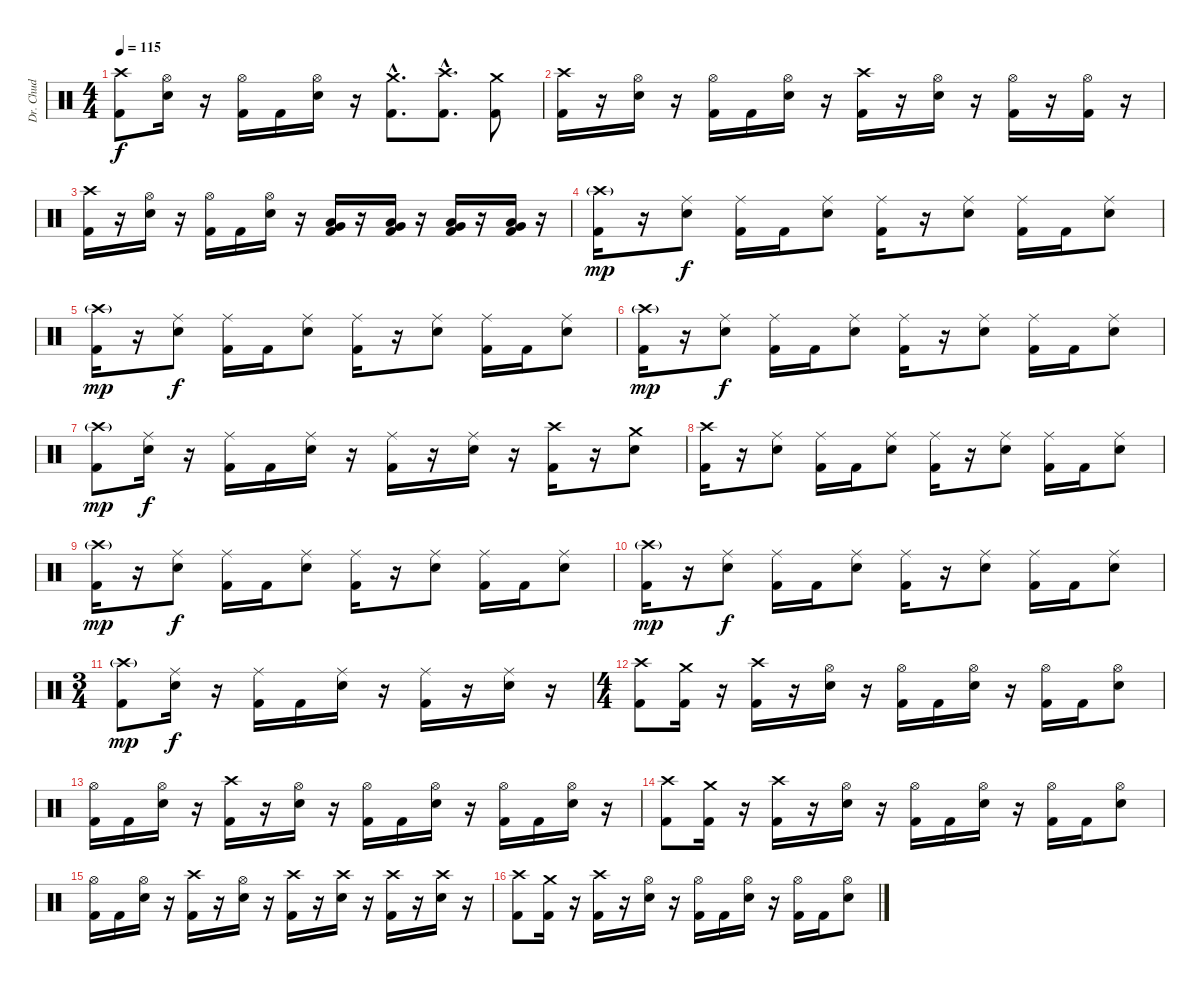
\track ("Dr. Chud" "Dr. Chud") {instrument percussion}
\staff {score}
\articulation defaults
\ts (4 4)
\tempo 115
\clef neutral
\ks c
("Crash high (hit)" "Kick (hit) 2").8{dy f} ("Hi-Hat (open)" "Snare (hit) 2").16 r.16 ("Hi-Hat (open)" "Kick (hit) 2").16 "Kick (hit) 2".16 ("Hi-Hat (open)" "Snare (hit) 2").16 r.16 ("Crash medium (hit)"{hac} "Kick (hit) 2"{hac}).8{d} ("Crash high (hit)"{hac} "Kick (hit) 2"{hac}).8{d} ("Crash medium (hit)" "Kick (hit) 2").8 |
("Crash high (hit)" "Kick (hit) 2").16 r.16 ("Hi-Hat (open)" "Snare (hit) 2").16 r.16 ("Hi-Hat (open)" "Kick (hit) 2").16 "Kick (hit) 2".16 ("Hi-Hat (open)" "Snare (hit) 2").16 r.16 ("Crash high (hit)" "Kick (hit) 2").16 r.16 ("Hi-Hat (open)" "Snare (hit) 2").16 r.16 ("Hi-Hat (open)" "Kick (hit) 2").16 r.16 ("Hi-Hat (open)" "Kick (hit) 2").16 r.16 |
("Crash high (hit)" "Kick (hit) 2").16 r.16 ("Hi-Hat (open)" "Snare (hit) 2").16 r.16 ("Hi-Hat (open)" "Kick (hit) 2").16 "Kick (hit) 2".16 ("Hi-Hat (open)" "Snare (hit) 2").16 r.16 ("Very Low Tom (hit)" "Low Floor Tom (hit)" "Kick (hit) 2").16 r.16 ("Very Low Tom (hit)" "Low Floor Tom (hit)" "Kick (hit) 2").16 r.16 ("Very Low Tom (hit)" "Low Floor Tom (hit)" "Kick (hit) 2").16 r.16 ("Very Low Tom (hit)" "Low Floor Tom (hit)" "Kick (hit) 2").16 r.16 |
("Crash high (hit)"{g} "Kick (hit) 2").16{dy mp} r.16 ("Ride (middle)" "Snare (hit) 2").8{dy f} ("Ride (middle)" "Kick (hit) 2").16 "Kick (hit) 2".16 ("Ride (middle)" "Snare (hit) 2").8 ("Ride (middle)" "Kick (hit) 2").16 r.16 ("Ride (middle)" "Snare (hit) 2").8 ("Ride (middle)" "Kick (hit) 2").16 "Kick (hit) 2".16 ("Ride (middle)" "Snare (hit) 2").8 |
("Crash high (hit)"{g} "Kick (hit) 2").16{dy mp} r.16 ("Ride (middle)" "Snare (hit) 2").8{dy f} ("Ride (middle)" "Kick (hit) 2").16 "Kick (hit) 2".16 ("Ride (middle)" "Snare (hit) 2").8 ("Ride (middle)" "Kick (hit) 2").16 r.16 ("Ride (middle)" "Snare (hit) 2").8 ("Ride (middle)" "Kick (hit) 2").16 "Kick (hit) 2".16 ("Ride (middle)" "Snare (hit) 2").8 |
("Crash high (hit)"{g} "Kick (hit) 2").16{dy mp} r.16 ("Ride (middle)" "Snare (hit) 2").8{dy f} ("Ride (middle)" "Kick (hit) 2").16 "Kick (hit) 2".16 ("Ride (middle)" "Snare (hit) 2").8 ("Ride (middle)" "Kick (hit) 2").16 r.16 ("Ride (middle)" "Snare (hit) 2").8 ("Ride (middle)" "Kick (hit) 2").16 "Kick (hit) 2".16 ("Ride (middle)" "Snare (hit) 2").8 |
("Crash high (hit)"{g} "Kick (hit) 2").8{dy mp} ("Ride (middle)" "Snare (hit) 2").16{dy f} r.16 ("Ride (middle)" "Kick (hit) 2").16 "Kick (hit) 2".16 ("Ride (middle)" "Snare (hit) 2").16 r.16 ("Ride (middle)" "Kick (hit) 2").16 r.16 ("Ride (middle)" "Snare (hit) 2").16 r.16 ("Crash high (hit)" "Kick (hit) 2").16 r.16 ("Crash medium (hit)" "Snare (hit) 2").8 |
("Crash high (hit)" "Kick (hit) 2").16 r.16 ("Ride (middle)" "Snare (hit) 2").8 ("Ride (middle)" "Kick (hit) 2").16 "Kick (hit) 2".16 ("Ride (middle)" "Snare (hit) 2").8 ("Ride (middle)" "Kick (hit) 2").16 r.16 ("Ride (middle)" "Snare (hit) 2").8 ("Ride (middle)" "Kick (hit) 2").16 "Kick (hit) 2".16 ("Ride (middle)" "Snare (hit) 2").8 |
("Crash high (hit)"{g} "Kick (hit) 2").16{dy mp} r.16 ("Ride (middle)" "Snare (hit) 2").8{dy f} ("Ride (middle)" "Kick (hit) 2").16 "Kick (hit) 2".16 ("Ride (middle)" "Snare (hit) 2").8 ("Ride (middle)" "Kick (hit) 2").16 r.16 ("Ride (middle)" "Snare (hit) 2").8 ("Ride (middle)" "Kick (hit) 2").16 "Kick (hit) 2".16 ("Ride (middle)" "Snare (hit) 2").8 |
("Crash high (hit)"{g} "Kick (hit) 2").16{dy mp} r.16 ("Ride (middle)" "Snare (hit) 2").8{dy f} ("Ride (middle)" "Kick (hit) 2").16 "Kick (hit) 2".16 ("Ride (middle)" "Snare (hit) 2").8 ("Ride (middle)" "Kick (hit) 2").16 r.16 ("Ride (middle)" "Snare (hit) 2").8 ("Ride (middle)" "Kick (hit) 2").16 "Kick (hit) 2".16 ("Ride (middle)" "Snare (hit) 2").8 |
\ts (3 4)
("Crash high (hit)"{g} "Kick (hit) 2").8{dy mp} ("Ride (middle)" "Snare (hit) 2").16{dy f} r.16 ("Ride (middle)" "Kick (hit) 2").16 "Kick (hit) 2".16 ("Ride (middle)" "Snare (hit) 2").16 r.16 ("Ride (middle)" "Kick (hit) 2").16 r.16 ("Ride (middle)" "Snare (hit) 2").16 r.16 |
\ts (4 4)
("Crash high (hit)" "Kick (hit) 2").8 ("Crash medium (hit)" "Kick (hit) 2").16 r.16 ("Crash high (hit)" "Kick (hit) 2").16 r.16 ("Hi-Hat (open)" "Snare (hit) 2").16 r.16 ("Hi-Hat (open)" "Kick (hit) 2").16 "Kick (hit) 2".16 ("Hi-Hat (open)" "Snare (hit) 2").16 r.16 ("Hi-Hat (open)" "Kick (hit) 2").16 "Kick (hit) 2".16 ("Hi-Hat (open)" "Snare (hit) 2").8 |
("Hi-Hat (open)" "Kick (hit) 2").16 "Kick (hit) 2".16 ("Hi-Hat (open)" "Snare (hit) 2").16 r.16 ("Crash high (hit)" "Kick (hit) 2").16 r.16 ("Hi-Hat (open)" "Snare (hit) 2").16 r.16 ("Hi-Hat (open)" "Kick (hit) 2").16 "Kick (hit) 2".16 ("Hi-Hat (open)" "Snare (hit) 2").16 r.16 ("Hi-Hat (open)" "Kick (hit) 2").16 "Kick (hit) 2".16 ("Hi-Hat (open)" "Snare (hit) 2").16 r.16 |
("Crash high (hit)" "Kick (hit) 2").8 ("Crash medium (hit)" "Kick (hit) 2").16 r.16 ("Crash high (hit)" "Kick (hit) 2").16 r.16 ("Hi-Hat (open)" "Snare (hit) 2").16 r.16 ("Hi-Hat (open)" "Kick (hit) 2").16 "Kick (hit) 2".16 ("Hi-Hat (open)" "Snare (hit) 2").16 r.16 ("Hi-Hat (open)" "Kick (hit) 2").16 "Kick (hit) 2".16 ("Hi-Hat (open)" "Snare (hit) 2").8 |
("Hi-Hat (open)" "Kick (hit) 2").16 "Kick (hit) 2".16 ("Hi-Hat (open)" "Snare (hit) 2").16 r.16 ("Crash high (hit)" "Kick (hit) 2").16 r.16 ("Hi-Hat (open)" "Snare (hit) 2").16 r.16 ("Crash high (hit)" "Kick (hit) 2").16 r.16 ("Crash high (hit)" "Snare (hit) 2").16 r.16 ("Crash high (hit)" "Kick (hit) 2").16 r.16 ("Crash high (hit)" "Snare (hit) 2").16 r.16 |
("Crash high (hit)" "Kick (hit) 2").8 ("Crash medium (hit)" "Kick (hit) 2").16 r.16 ("Crash high (hit)" "Kick (hit) 2").16 r.16 ("Hi-Hat (open)" "Snare (hit) 2").16 r.16 ("Hi-Hat (open)" "Kick (hit) 2").16 "Kick (hit) 2".16 ("Hi-Hat (open)" "Snare (hit) 2").16 r.16 ("Hi-Hat (open)" "Kick (hit) 2").16 "Kick (hit) 2".16 ("Hi-Hat (open)" "Snare (hit) 2").8
